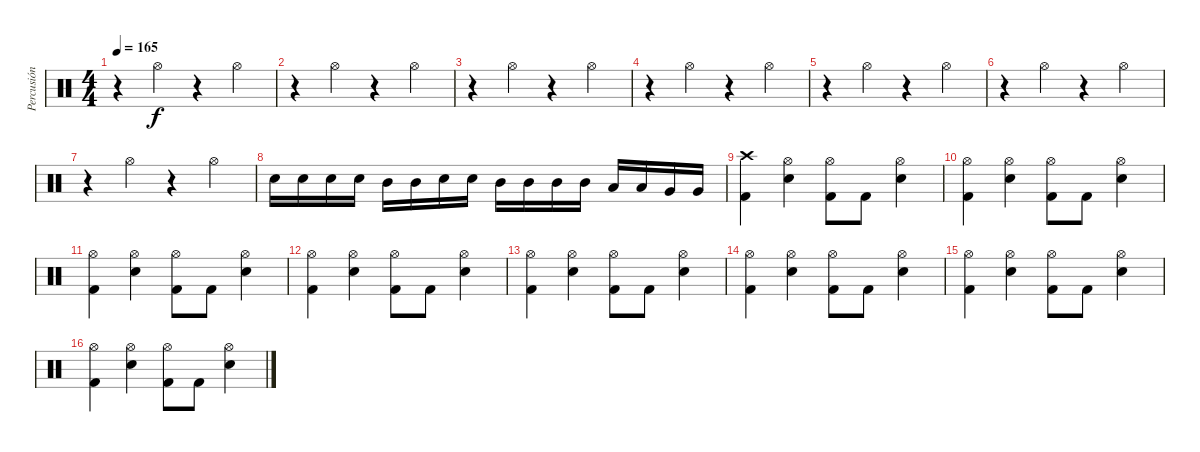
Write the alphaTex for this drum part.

\track ("Percusión" "Percusión") {instrument percussion}
\staff {score}
\articulation defaults
\ts (4 4)
\tempo 165
\clef neutral
\ks c
r.4{dy f} "Hi-Hat (open)".4 r.4 "Hi-Hat (open)".4 |
r.4 "Hi-Hat (open)".4 r.4 "Hi-Hat (open)".4 |
r.4 "Hi-Hat (open)".4 r.4 "Hi-Hat (open)".4 |
r.4 "Hi-Hat (open)".4 r.4 "Hi-Hat (open)".4 |
r.4 "Hi-Hat (open)".4 r.4 "Hi-Hat (open)".4 |
r.4 "Hi-Hat (open)".4 r.4 "Hi-Hat (open)".4 |
r.4 "Hi-Hat (open)".4 r.4 "Hi-Hat (open)".4 |
"Snare (hit) 2".16 "Snare (hit) 2".16 "Snare (hit) 2".16 "Snare (hit) 2".16 "Mid Tom (hit)".16 "Mid Tom (hit)".16 "Snare (hit) 2".16 "Snare (hit) 2".16 "Mid Tom (hit)".16 "Mid Tom (hit)".16 "Mid Tom (hit)".16 "Mid Tom (hit)".16 "Low Tom (hit)".16 "Low Tom (hit)".16 "Very Low Tom (hit)".16 "Very Low Tom (hit)".16 |
("Crash high (hit)" "Kick (hit) 2").4 ("Hi-Hat (open)" "Snare (hit) 2").4 ("Hi-Hat (open)" "Kick (hit) 2").8 "Kick (hit) 2".8 ("Hi-Hat (open)" "Snare (hit) 2").4 |
("Hi-Hat (open)" "Kick (hit) 2").4 ("Hi-Hat (open)" "Snare (hit) 2").4 ("Hi-Hat (open)" "Kick (hit) 2").8 "Kick (hit) 2".8 ("Hi-Hat (open)" "Snare (hit) 2").4 |
("Hi-Hat (open)" "Kick (hit) 2").4 ("Hi-Hat (open)" "Snare (hit) 2").4 ("Hi-Hat (open)" "Kick (hit) 2").8 "Kick (hit) 2".8 ("Hi-Hat (open)" "Snare (hit) 2").4 |
("Hi-Hat (open)" "Kick (hit) 2").4 ("Hi-Hat (open)" "Snare (hit) 2").4 ("Hi-Hat (open)" "Kick (hit) 2").8 "Kick (hit) 2".8 ("Hi-Hat (open)" "Snare (hit) 2").4 |
("Hi-Hat (open)" "Kick (hit) 2").4 ("Hi-Hat (open)" "Snare (hit) 2").4 ("Hi-Hat (open)" "Kick (hit) 2").8 "Kick (hit) 2".8 ("Hi-Hat (open)" "Snare (hit) 2").4 |
("Hi-Hat (open)" "Kick (hit) 2").4 ("Hi-Hat (open)" "Snare (hit) 2").4 ("Hi-Hat (open)" "Kick (hit) 2").8 "Kick (hit) 2".8 ("Hi-Hat (open)" "Snare (hit) 2").4 |
("Hi-Hat (open)" "Kick (hit) 2").4 ("Hi-Hat (open)" "Snare (hit) 2").4 ("Hi-Hat (open)" "Kick (hit) 2").8 "Kick (hit) 2".8 ("Hi-Hat (open)" "Snare (hit) 2").4 |
("Hi-Hat (open)" "Kick (hit) 2").4 ("Hi-Hat (open)" "Snare (hit) 2").4 ("Hi-Hat (open)" "Kick (hit) 2").8 "Kick (hit) 2".8 ("Hi-Hat (open)" "Snare (hit) 2").4
